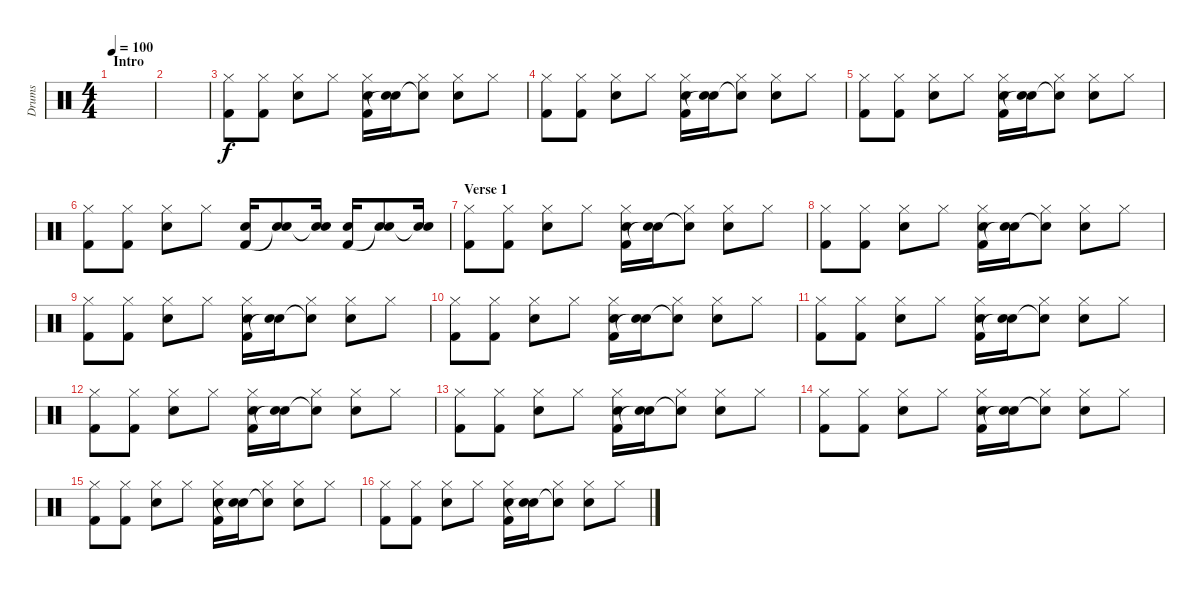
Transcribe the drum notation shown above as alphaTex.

\track ("Drums" "Drums") {instrument percussion}
\staff {score}
\articulation defaults
\ts (4 4)
\section ("" "Intro")
\tempo 100
\clef neutral
\ks c
|
|
("Kick (hit) 2" "Hi-Hat (closed)").8 ("Kick (hit) 2" "Hi-Hat (closed)").8 ("Snare (hit) 2" "Hi-Hat (closed)").8 "Hi-Hat (closed)".8 ("Kick (hit) 2" "Snare (hit) 2" "Hi-Hat (closed)").16 ("Snare (hit)"{t} "Snare (hit) 2").16 ("Snare (hit)"{t} "Hi-Hat (closed)").8 ("Snare (hit) 2" "Hi-Hat (closed)").8 "Hi-Hat (closed)".8 |
("Kick (hit) 2" "Hi-Hat (closed)").8 ("Kick (hit) 2" "Hi-Hat (closed)").8 ("Snare (hit) 2" "Hi-Hat (closed)").8 "Hi-Hat (closed)".8 ("Kick (hit) 2" "Snare (hit) 2" "Hi-Hat (closed)").16 ("Snare (hit)"{t} "Snare (hit) 2").16 ("Snare (hit)"{t} "Hi-Hat (closed)").8 ("Snare (hit) 2" "Hi-Hat (closed)").8 "Hi-Hat (closed)".8 |
("Kick (hit) 2" "Hi-Hat (closed)").8 ("Kick (hit) 2" "Hi-Hat (closed)").8 ("Snare (hit) 2" "Hi-Hat (closed)").8 "Hi-Hat (closed)".8 ("Kick (hit) 2" "Snare (hit) 2" "Hi-Hat (closed)").16 ("Snare (hit)"{t} "Snare (hit) 2").16 ("Snare (hit)"{t} "Hi-Hat (closed)").8 ("Snare (hit) 2" "Hi-Hat (closed)").8 "Hi-Hat (closed)".8 |
("Kick (hit) 2" "Hi-Hat (closed)").8 ("Kick (hit) 2" "Hi-Hat (closed)").8 ("Snare (hit) 2" "Hi-Hat (closed)").8 "Hi-Hat (closed)".8 ("Kick (hit) 2" "Snare (hit) 2").16 ("Snare (hit)"{t} "Snare (hit) 2").8 ("Snare (hit)"{t} "Snare (hit) 2").16 ("Kick (hit) 2" "Snare (hit) 2").16 ("Snare (hit)"{t} "Snare (hit) 2").8 ("Snare (hit)"{t} "Snare (hit) 2").16 |
\section ("" "Verse 1")
("Kick (hit) 2" "Hi-Hat (closed)").8 ("Kick (hit) 2" "Hi-Hat (closed)").8 ("Snare (hit) 2" "Hi-Hat (closed)").8 "Hi-Hat (closed)".8 ("Kick (hit) 2" "Snare (hit) 2" "Hi-Hat (closed)").16 ("Snare (hit)"{t} "Snare (hit) 2").16 ("Snare (hit)"{t} "Hi-Hat (closed)").8 ("Snare (hit) 2" "Hi-Hat (closed)").8 "Hi-Hat (closed)".8 |
("Kick (hit) 2" "Hi-Hat (closed)").8 ("Kick (hit) 2" "Hi-Hat (closed)").8 ("Snare (hit) 2" "Hi-Hat (closed)").8 "Hi-Hat (closed)".8 ("Kick (hit) 2" "Snare (hit) 2" "Hi-Hat (closed)").16 ("Snare (hit)"{t} "Snare (hit) 2").16 ("Snare (hit)"{t} "Hi-Hat (closed)").8 ("Snare (hit) 2" "Hi-Hat (closed)").8 "Hi-Hat (closed)".8 |
("Kick (hit) 2" "Hi-Hat (closed)").8 ("Kick (hit) 2" "Hi-Hat (closed)").8 ("Snare (hit) 2" "Hi-Hat (closed)").8 "Hi-Hat (closed)".8 ("Kick (hit) 2" "Snare (hit) 2" "Hi-Hat (closed)").16 ("Snare (hit)"{t} "Snare (hit) 2").16 ("Snare (hit)"{t} "Hi-Hat (closed)").8 ("Snare (hit) 2" "Hi-Hat (closed)").8 "Hi-Hat (closed)".8 |
("Kick (hit) 2" "Hi-Hat (closed)").8 ("Kick (hit) 2" "Hi-Hat (closed)").8 ("Snare (hit) 2" "Hi-Hat (closed)").8 "Hi-Hat (closed)".8 ("Kick (hit) 2" "Snare (hit) 2" "Hi-Hat (closed)").16 ("Snare (hit)"{t} "Snare (hit) 2").16 ("Snare (hit)"{t} "Hi-Hat (closed)").8 ("Snare (hit) 2" "Hi-Hat (closed)").8 "Hi-Hat (closed)".8 |
("Kick (hit) 2" "Hi-Hat (closed)").8 ("Kick (hit) 2" "Hi-Hat (closed)").8 ("Snare (hit) 2" "Hi-Hat (closed)").8 "Hi-Hat (closed)".8 ("Kick (hit) 2" "Snare (hit) 2" "Hi-Hat (closed)").16 ("Snare (hit)"{t} "Snare (hit) 2").16 ("Snare (hit)"{t} "Hi-Hat (closed)").8 ("Snare (hit) 2" "Hi-Hat (closed)").8 "Hi-Hat (closed)".8 |
("Kick (hit) 2" "Hi-Hat (closed)").8 ("Kick (hit) 2" "Hi-Hat (closed)").8 ("Snare (hit) 2" "Hi-Hat (closed)").8 "Hi-Hat (closed)".8 ("Kick (hit) 2" "Snare (hit) 2" "Hi-Hat (closed)").16 ("Snare (hit)"{t} "Snare (hit) 2").16 ("Snare (hit)"{t} "Hi-Hat (closed)").8 ("Snare (hit) 2" "Hi-Hat (closed)").8 "Hi-Hat (closed)".8 |
("Kick (hit) 2" "Hi-Hat (closed)").8 ("Kick (hit) 2" "Hi-Hat (closed)").8 ("Snare (hit) 2" "Hi-Hat (closed)").8 "Hi-Hat (closed)".8 ("Kick (hit) 2" "Snare (hit) 2" "Hi-Hat (closed)").16 ("Snare (hit)"{t} "Snare (hit) 2").16 ("Snare (hit)"{t} "Hi-Hat (closed)").8 ("Snare (hit) 2" "Hi-Hat (closed)").8 "Hi-Hat (closed)".8 |
("Kick (hit) 2" "Hi-Hat (closed)").8 ("Kick (hit) 2" "Hi-Hat (closed)").8 ("Snare (hit) 2" "Hi-Hat (closed)").8 "Hi-Hat (closed)".8 ("Kick (hit) 2" "Snare (hit) 2" "Hi-Hat (closed)").16 ("Snare (hit)"{t} "Snare (hit) 2").16 ("Snare (hit)"{t} "Hi-Hat (closed)").8 ("Snare (hit) 2" "Hi-Hat (closed)").8 "Hi-Hat (closed)".8 |
("Kick (hit) 2" "Hi-Hat (closed)").8 ("Kick (hit) 2" "Hi-Hat (closed)").8 ("Snare (hit) 2" "Hi-Hat (closed)").8 "Hi-Hat (closed)".8 ("Kick (hit) 2" "Snare (hit) 2" "Hi-Hat (closed)").16 ("Snare (hit)"{t} "Snare (hit) 2").16 ("Snare (hit)"{t} "Hi-Hat (closed)").8 ("Snare (hit) 2" "Hi-Hat (closed)").8 "Hi-Hat (closed)".8 |
("Kick (hit) 2" "Hi-Hat (closed)").8 ("Kick (hit) 2" "Hi-Hat (closed)").8 ("Snare (hit) 2" "Hi-Hat (closed)").8 "Hi-Hat (closed)".8 ("Kick (hit) 2" "Snare (hit) 2" "Hi-Hat (closed)").16 ("Snare (hit)"{t} "Snare (hit) 2").16 ("Snare (hit)"{t} "Hi-Hat (closed)").8 ("Snare (hit) 2" "Hi-Hat (closed)").8 "Hi-Hat (closed)".8
